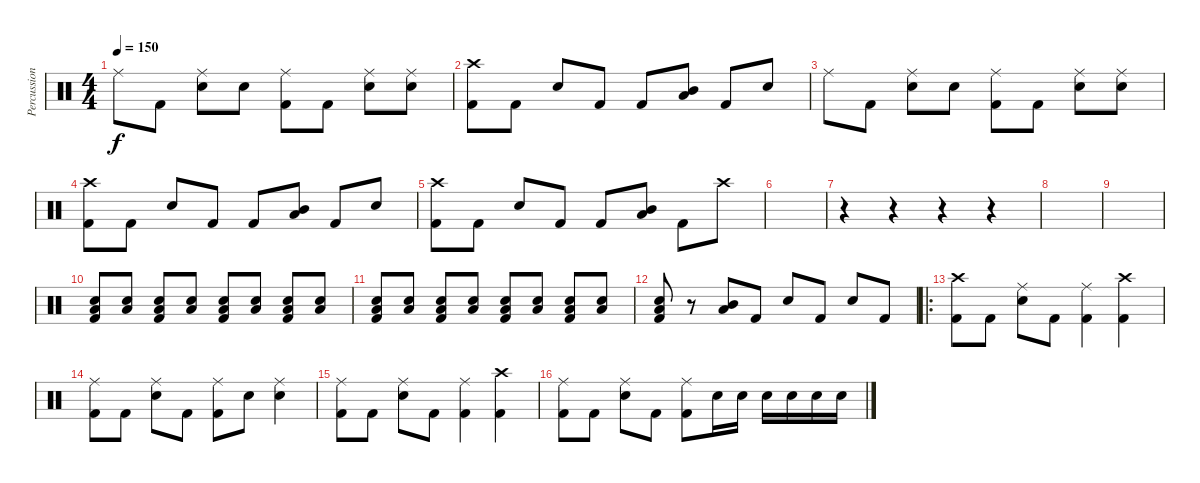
\track ("Percussion" "Percussion") {instrument percussion}
\staff {score}
\articulation defaults
\ts (4 4)
\tempo 150
\clef neutral
\ks c "Ride (middle)".8{dy f} "Kick (hit) 2".8
("Ride (middle)" "Snare (hit) 2").8 "Snare (hit) 2".8 ("Kick (hit) 2" "Ride (middle)").8 "Kick (hit) 2".8 ("Ride (middle)" "Snare (hit) 2").8 ("Snare (hit) 2" "Ride (middle)").8 |
("Crash high (hit)" "Kick (hit) 2").8 "Kick (hit) 2".8 "Snare (hit) 2".8 "Kick (hit) 2".8 "Kick (hit) 2".8 ("Mid Tom (hit)" "Low Floor Tom (hit)").8 "Kick (hit) 2".8 "Snare (hit) 2".8 |
"Ride (middle)".8 "Kick (hit) 2".8 ("Ride (middle)" "Snare (hit) 2").8 "Snare (hit) 2".8 ("Kick (hit) 2" "Ride (middle)").8 "Kick (hit) 2".8 ("Ride (middle)" "Snare (hit) 2").8 ("Snare (hit) 2" "Ride (middle)").8 |
("Crash high (hit)" "Kick (hit) 2").8 "Kick (hit) 2".8 "Snare (hit) 2".8 "Kick (hit) 2".8 "Kick (hit) 2".8 ("Mid Tom (hit)" "Low Floor Tom (hit)").8 "Kick (hit) 2".8 "Snare (hit) 2".8 |
("Crash high (hit)" "Kick (hit) 2").8 "Kick (hit) 2".8 "Snare (hit) 2".8 "Kick (hit) 2".8 "Kick (hit) 2".8 ("Mid Tom (hit)" "Low Floor Tom (hit)").8 "Kick (hit) 2".8 "Crash high (hit)".8 |
|
r.4 r.4 r.4 r.4 |
|
|
("Low Floor Tom (hit)" "Snare (hit) 2" "Kick (hit) 2").8 ("Low Floor Tom (hit)" "Snare (hit) 2").8 ("Low Floor Tom (hit)" "Snare (hit) 2" "Kick (hit) 2").8 ("Low Floor Tom (hit)" "Snare (hit) 2").8 ("Low Floor Tom (hit)" "Snare (hit) 2" "Kick (hit) 2").8 ("Low Floor Tom (hit)" "Snare (hit) 2").8 ("Low Floor Tom (hit)" "Snare (hit) 2" "Kick (hit) 2").8 ("Low Floor Tom (hit)" "Snare (hit) 2").8 |
("Low Floor Tom (hit)" "Snare (hit) 2" "Kick (hit) 2").8 ("Low Floor Tom (hit)" "Snare (hit) 2").8 ("Low Floor Tom (hit)" "Snare (hit) 2" "Kick (hit) 2").8 ("Low Floor Tom (hit)" "Snare (hit) 2").8 ("Low Floor Tom (hit)" "Snare (hit) 2" "Kick (hit) 2").8 ("Low Floor Tom (hit)" "Snare (hit) 2").8 ("Low Floor Tom (hit)" "Snare (hit) 2" "Kick (hit) 2").8 ("Low Floor Tom (hit)" "Snare (hit) 2").8 |
("Low Floor Tom (hit)" "Snare (hit) 2" "Kick (hit) 2").8 r.8 ("Mid Tom (hit)" "Low Floor Tom (hit)").8 "Kick (hit) 2".8 "Snare (hit) 2".8 "Kick (hit) 2".8 "Snare (hit) 2".8 "Kick (hit) 2".8 |
\ro
("Crash high (hit)" "Kick (hit) 2").8 "Kick (hit) 2".8 ("Ride (middle)" "Snare (hit) 2").8 "Kick (hit) 2".8 ("Ride (middle)" "Kick (hit) 2").4 ("Crash high (hit)" "Kick (hit) 2").4 |
("Ride (middle)" "Kick (hit) 2").8 "Kick (hit) 2".8 ("Ride (middle)" "Snare (hit) 2").8 "Kick (hit) 2".8 ("Ride (middle)" "Kick (hit) 2").8 "Snare (hit) 2".8 ("Ride (middle)" "Snare (hit) 2").4 |
("Ride (middle)" "Kick (hit) 2").8 "Kick (hit) 2".8 ("Ride (middle)" "Snare (hit) 2").8 "Kick (hit) 2".8 ("Ride (middle)" "Kick (hit) 2").4 ("Crash high (hit)" "Kick (hit) 2").4 |
("Ride (middle)" "Kick (hit) 2").8 "Kick (hit) 2".8 ("Ride (middle)" "Snare (hit) 2").8 "Kick (hit) 2".8 ("Ride (middle)" "Kick (hit) 2").8 "Snare (hit) 2".16 "Snare (hit) 2".16 "Snare (hit) 2".16 "Snare (hit) 2".16 "Snare (hit) 2".16 "Snare (hit) 2".16
